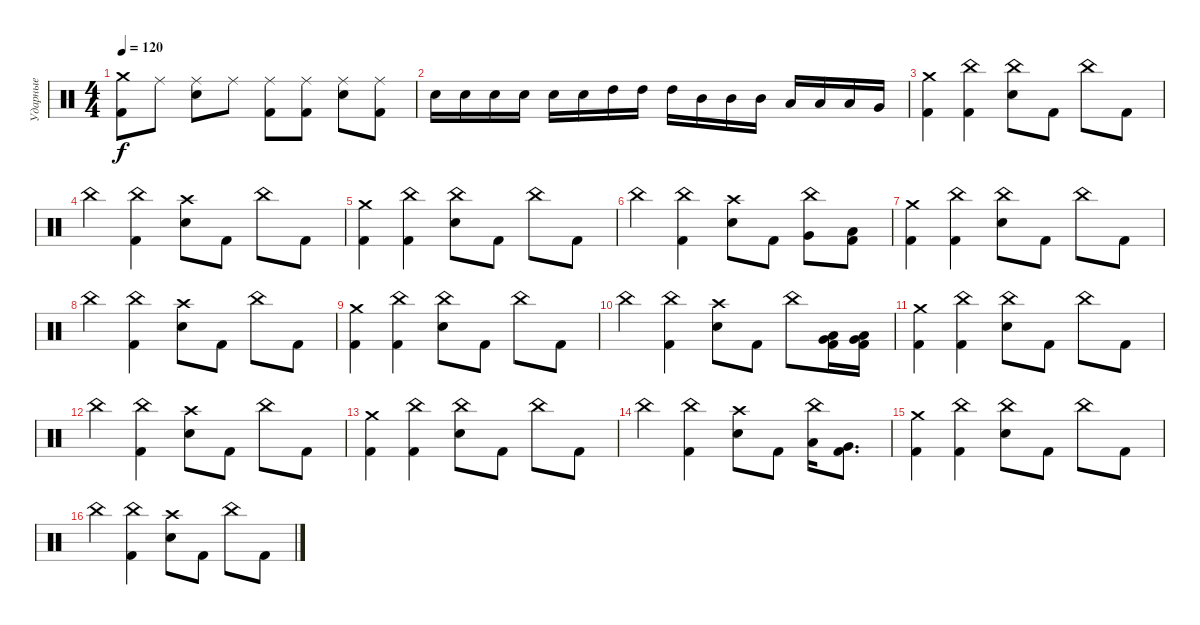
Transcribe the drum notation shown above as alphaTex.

\track ("Ударные" "Ударные") {instrument percussion}
\staff {score}
\articulation defaults
\ts (4 4)
\tempo 120
\clef neutral
\ks c
("Crash medium (hit)" "Kick (hit) 2").8{dy f} "Ride (middle)".8 ("Ride (middle)" "Electric Snare (hit)").8 "Ride (middle)".8 ("Ride (middle)" "Kick (hit) 2").8 ("Ride (middle)" "Kick (hit) 2").8 ("Ride (middle)" "Electric Snare (hit)").8 ("Ride (middle)" "Kick (hit) 2").8 |
"Electric Snare (hit)".16 "Electric Snare (hit)".16 "Electric Snare (hit)".16 "Electric Snare (hit)".16 "Electric Snare (hit)".16 "Electric Snare (hit)".16 "High Tom (hit)".16 "High Tom (hit)".16 "High Tom (hit)".16 "Mid Tom (hit)".16 "Mid Tom (hit)".16 "Mid Tom (hit)".16 "Low Tom (hit)".16 "Low Tom (hit)".16 "Low Tom (hit)".16 "Very Low Tom (hit)".16 |
("Crash medium (hit)" "Kick (hit) 2").4 ("China (hit)" "Kick (hit) 2").4 ("China (hit)" "Electric Snare (hit)").8 "Kick (hit) 2".8 "China (hit)".8 "Kick (hit) 2".8 |
"China (hit)".4 ("China (hit)" "Kick (hit) 2").4 ("Crash high (hit)" "Electric Snare (hit)").8 "Kick (hit) 2".8 "China (hit)".8 "Kick (hit) 2".8 |
("Crash medium (hit)" "Kick (hit) 2").4 ("China (hit)" "Kick (hit) 2").4 ("China (hit)" "Electric Snare (hit)").8 "Kick (hit) 2".8 "China (hit)".8 "Kick (hit) 2".8 |
"China (hit)".4 ("China (hit)" "Kick (hit) 2").4 ("Crash high (hit)" "Electric Snare (hit)").8 "Kick (hit) 2".8 ("China (hit)" "Very Low Tom (hit)").8 ("Low Floor Tom (hit)" "Kick (hit) 2").8 |
("Crash medium (hit)" "Kick (hit) 2").4 ("China (hit)" "Kick (hit) 2").4 ("China (hit)" "Electric Snare (hit)").8 "Kick (hit) 2".8 "China (hit)".8 "Kick (hit) 2".8 |
"China (hit)".4 ("China (hit)" "Kick (hit) 2").4 ("Crash high (hit)" "Electric Snare (hit)").8 "Kick (hit) 2".8 "China (hit)".8 "Kick (hit) 2".8 |
("Crash medium (hit)" "Kick (hit) 2").4 ("China (hit)" "Kick (hit) 2").4 ("China (hit)" "Electric Snare (hit)").8 "Kick (hit) 2".8 "China (hit)".8 "Kick (hit) 2".8 |
"China (hit)".4 ("China (hit)" "Kick (hit) 2").4 ("Crash high (hit)" "Electric Snare (hit)").8 "Kick (hit) 2".8 "China (hit)".8 ("Very Low Tom (hit)" "Low Floor Tom (hit)" "Kick (hit) 2").16 ("Very Low Tom (hit)" "Low Floor Tom (hit)" "Kick (hit) 2").16 |
("Crash medium (hit)" "Kick (hit) 2").4 ("China (hit)" "Kick (hit) 2").4 ("China (hit)" "Electric Snare (hit)").8 "Kick (hit) 2".8 "China (hit)".8 "Kick (hit) 2".8 |
"China (hit)".4 ("China (hit)" "Kick (hit) 2").4 ("Crash high (hit)" "Electric Snare (hit)").8 "Kick (hit) 2".8 "China (hit)".8 "Kick (hit) 2".8 |
("Crash medium (hit)" "Kick (hit) 2").4 ("China (hit)" "Kick (hit) 2").4 ("China (hit)" "Electric Snare (hit)").8 "Kick (hit) 2".8 "China (hit)".8 "Kick (hit) 2".8 |
"China (hit)".4 ("China (hit)" "Kick (hit) 2").4 ("Crash high (hit)" "Electric Snare (hit)").8 "Kick (hit) 2".8 ("China (hit)" "Low Tom (hit)").16 ("Very Low Tom (hit)" "Kick (hit) 2").8{d} |
("Crash medium (hit)" "Kick (hit) 2").4 ("China (hit)" "Kick (hit) 2").4 ("China (hit)" "Electric Snare (hit)").8 "Kick (hit) 2".8 "China (hit)".8 "Kick (hit) 2".8 |
"China (hit)".4 ("China (hit)" "Kick (hit) 2").4 ("Crash high (hit)" "Electric Snare (hit)").8 "Kick (hit) 2".8 "China (hit)".8 "Kick (hit) 2".8
